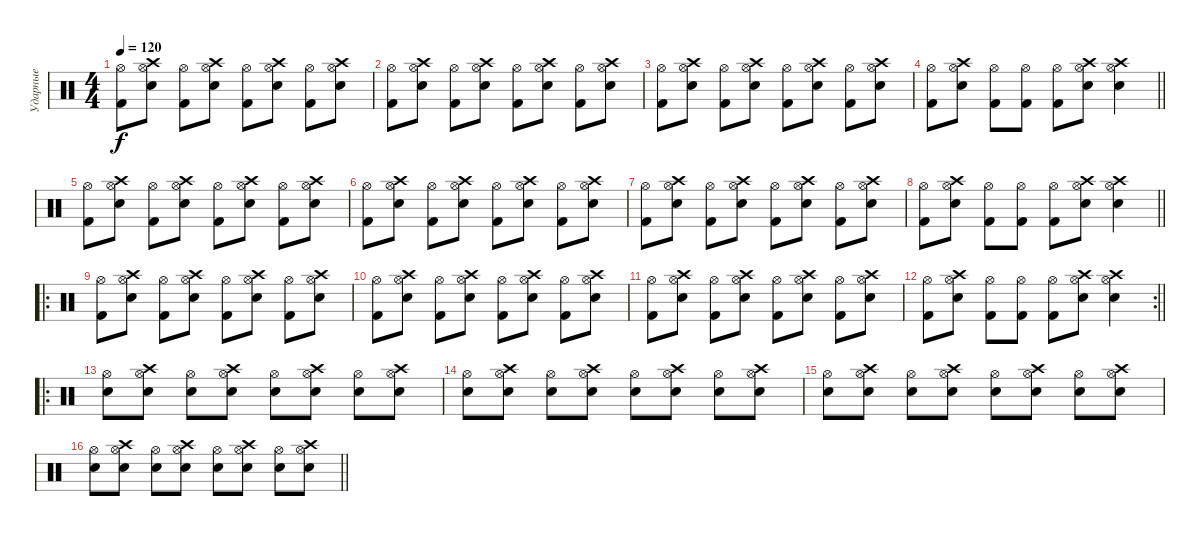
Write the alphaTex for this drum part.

\track ("Ударные" "Ударные") {instrument percussion}
\staff {score}
\articulation defaults
\ts (4 4)
\tempo 120
\clef neutral
\ks c
("Hi-Hat (open)" "Kick (hit) 2").8{dy f} ("Hi-Hat (open)" "Crash high (hit)" "Snare (hit) 2").8 ("Hi-Hat (open)" "Kick (hit) 2").8 ("Hi-Hat (open)" "Crash high (hit)" "Snare (hit) 2").8 ("Hi-Hat (open)" "Kick (hit) 2").8 ("Hi-Hat (open)" "Crash high (hit)" "Snare (hit) 2").8 ("Hi-Hat (open)" "Kick (hit) 2").8 ("Hi-Hat (open)" "Crash high (hit)" "Snare (hit) 2").8 |
("Hi-Hat (open)" "Kick (hit) 2").8 ("Hi-Hat (open)" "Crash high (hit)" "Snare (hit) 2").8 ("Hi-Hat (open)" "Kick (hit) 2").8 ("Hi-Hat (open)" "Crash high (hit)" "Snare (hit) 2").8 ("Hi-Hat (open)" "Kick (hit) 2").8 ("Hi-Hat (open)" "Crash high (hit)" "Snare (hit) 2").8 ("Hi-Hat (open)" "Kick (hit) 2").8 ("Hi-Hat (open)" "Crash high (hit)" "Snare (hit) 2").8 |
("Hi-Hat (open)" "Kick (hit) 2").8 ("Hi-Hat (open)" "Crash high (hit)" "Snare (hit) 2").8 ("Hi-Hat (open)" "Kick (hit) 2").8 ("Hi-Hat (open)" "Crash high (hit)" "Snare (hit) 2").8 ("Hi-Hat (open)" "Kick (hit) 2").8 ("Hi-Hat (open)" "Crash high (hit)" "Snare (hit) 2").8 ("Hi-Hat (open)" "Kick (hit) 2").8 ("Hi-Hat (open)" "Crash high (hit)" "Snare (hit) 2").8 |
\barLineRight lightlight
("Hi-Hat (open)" "Kick (hit) 2").8 ("Hi-Hat (open)" "Crash high (hit)" "Snare (hit) 2").8 ("Hi-Hat (open)" "Kick (hit) 2").8 ("Hi-Hat (open)" "Kick (hit) 2").8 ("Hi-Hat (open)" "Kick (hit) 2").8 ("Hi-Hat (open)" "Crash high (hit)" "Snare (hit) 2").8 ("Hi-Hat (open)" "Crash high (hit)" "Snare (hit) 2").4 |
("Hi-Hat (open)" "Kick (hit) 2").8 ("Hi-Hat (open)" "Crash high (hit)" "Snare (hit) 2").8 ("Hi-Hat (open)" "Kick (hit) 2").8 ("Hi-Hat (open)" "Crash high (hit)" "Snare (hit) 2").8 ("Hi-Hat (open)" "Kick (hit) 2").8 ("Hi-Hat (open)" "Crash high (hit)" "Snare (hit) 2").8 ("Hi-Hat (open)" "Kick (hit) 2").8 ("Hi-Hat (open)" "Crash high (hit)" "Snare (hit) 2").8 |
("Hi-Hat (open)" "Kick (hit) 2").8 ("Hi-Hat (open)" "Crash high (hit)" "Snare (hit) 2").8 ("Hi-Hat (open)" "Kick (hit) 2").8 ("Hi-Hat (open)" "Crash high (hit)" "Snare (hit) 2").8 ("Hi-Hat (open)" "Kick (hit) 2").8 ("Hi-Hat (open)" "Crash high (hit)" "Snare (hit) 2").8 ("Hi-Hat (open)" "Kick (hit) 2").8 ("Hi-Hat (open)" "Crash high (hit)" "Snare (hit) 2").8 |
("Hi-Hat (open)" "Kick (hit) 2").8 ("Hi-Hat (open)" "Crash high (hit)" "Snare (hit) 2").8 ("Hi-Hat (open)" "Kick (hit) 2").8 ("Hi-Hat (open)" "Crash high (hit)" "Snare (hit) 2").8 ("Hi-Hat (open)" "Kick (hit) 2").8 ("Hi-Hat (open)" "Crash high (hit)" "Snare (hit) 2").8 ("Hi-Hat (open)" "Kick (hit) 2").8 ("Hi-Hat (open)" "Crash high (hit)" "Snare (hit) 2").8 |
\barLineRight lightlight
("Hi-Hat (open)" "Kick (hit) 2").8 ("Hi-Hat (open)" "Crash high (hit)" "Snare (hit) 2").8 ("Hi-Hat (open)" "Kick (hit) 2").8 ("Hi-Hat (open)" "Kick (hit) 2").8 ("Hi-Hat (open)" "Kick (hit) 2").8 ("Hi-Hat (open)" "Crash high (hit)" "Snare (hit) 2").8 ("Hi-Hat (open)" "Crash high (hit)" "Snare (hit) 2").4 |
\ro
("Hi-Hat (open)" "Kick (hit) 2").8 ("Hi-Hat (open)" "Crash high (hit)" "Snare (hit) 2").8 ("Hi-Hat (open)" "Kick (hit) 2").8 ("Hi-Hat (open)" "Crash high (hit)" "Snare (hit) 2").8 ("Hi-Hat (open)" "Kick (hit) 2").8 ("Hi-Hat (open)" "Crash high (hit)" "Snare (hit) 2").8 ("Hi-Hat (open)" "Kick (hit) 2").8 ("Hi-Hat (open)" "Crash high (hit)" "Snare (hit) 2").8 |
("Hi-Hat (open)" "Kick (hit) 2").8 ("Hi-Hat (open)" "Crash high (hit)" "Snare (hit) 2").8 ("Hi-Hat (open)" "Kick (hit) 2").8 ("Hi-Hat (open)" "Crash high (hit)" "Snare (hit) 2").8 ("Hi-Hat (open)" "Kick (hit) 2").8 ("Hi-Hat (open)" "Crash high (hit)" "Snare (hit) 2").8 ("Hi-Hat (open)" "Kick (hit) 2").8 ("Hi-Hat (open)" "Crash high (hit)" "Snare (hit) 2").8 |
("Hi-Hat (open)" "Kick (hit) 2").8 ("Hi-Hat (open)" "Crash high (hit)" "Snare (hit) 2").8 ("Hi-Hat (open)" "Kick (hit) 2").8 ("Hi-Hat (open)" "Crash high (hit)" "Snare (hit) 2").8 ("Hi-Hat (open)" "Kick (hit) 2").8 ("Hi-Hat (open)" "Crash high (hit)" "Snare (hit) 2").8 ("Hi-Hat (open)" "Kick (hit) 2").8 ("Hi-Hat (open)" "Crash high (hit)" "Snare (hit) 2").8 |
\rc 2
\barLineRight lightlight
("Hi-Hat (open)" "Kick (hit) 2").8 ("Hi-Hat (open)" "Crash high (hit)" "Snare (hit) 2").8 ("Hi-Hat (open)" "Kick (hit) 2").8 ("Hi-Hat (open)" "Kick (hit) 2").8 ("Hi-Hat (open)" "Kick (hit) 2").8 ("Hi-Hat (open)" "Crash high (hit)" "Snare (hit) 2").8 ("Hi-Hat (open)" "Crash high (hit)" "Snare (hit) 2").4 |
\ro
("Hi-Hat (open)" "Snare (hit) 2").8 ("Hi-Hat (open)" "Crash high (hit)" "Snare (hit) 2").8 ("Hi-Hat (open)" "Snare (hit) 2").8 ("Hi-Hat (open)" "Crash high (hit)" "Snare (hit) 2").8 ("Hi-Hat (open)" "Snare (hit) 2").8 ("Hi-Hat (open)" "Crash high (hit)" "Snare (hit) 2").8 ("Hi-Hat (open)" "Snare (hit) 2").8 ("Hi-Hat (open)" "Crash high (hit)" "Snare (hit) 2").8 |
("Hi-Hat (open)" "Snare (hit) 2").8 ("Hi-Hat (open)" "Crash high (hit)" "Snare (hit) 2").8 ("Hi-Hat (open)" "Snare (hit) 2").8 ("Hi-Hat (open)" "Crash high (hit)" "Snare (hit) 2").8 ("Hi-Hat (open)" "Snare (hit) 2").8 ("Hi-Hat (open)" "Crash high (hit)" "Snare (hit) 2").8 ("Hi-Hat (open)" "Snare (hit) 2").8 ("Hi-Hat (open)" "Crash high (hit)" "Snare (hit) 2").8 |
("Hi-Hat (open)" "Snare (hit) 2").8 ("Hi-Hat (open)" "Crash high (hit)" "Snare (hit) 2").8 ("Hi-Hat (open)" "Snare (hit) 2").8 ("Hi-Hat (open)" "Crash high (hit)" "Snare (hit) 2").8 ("Hi-Hat (open)" "Snare (hit) 2").8 ("Hi-Hat (open)" "Crash high (hit)" "Snare (hit) 2").8 ("Hi-Hat (open)" "Snare (hit) 2").8 ("Hi-Hat (open)" "Crash high (hit)" "Snare (hit) 2").8 |
\barLineRight lightlight
("Hi-Hat (open)" "Snare (hit) 2").8 ("Hi-Hat (open)" "Crash high (hit)" "Snare (hit) 2").8 ("Hi-Hat (open)" "Snare (hit) 2").8 ("Hi-Hat (open)" "Crash high (hit)" "Snare (hit) 2").8 ("Hi-Hat (open)" "Snare (hit) 2").8 ("Hi-Hat (open)" "Crash high (hit)" "Snare (hit) 2").8 ("Hi-Hat (open)" "Snare (hit) 2").8 ("Hi-Hat (open)" "Crash high (hit)" "Snare (hit) 2").8
